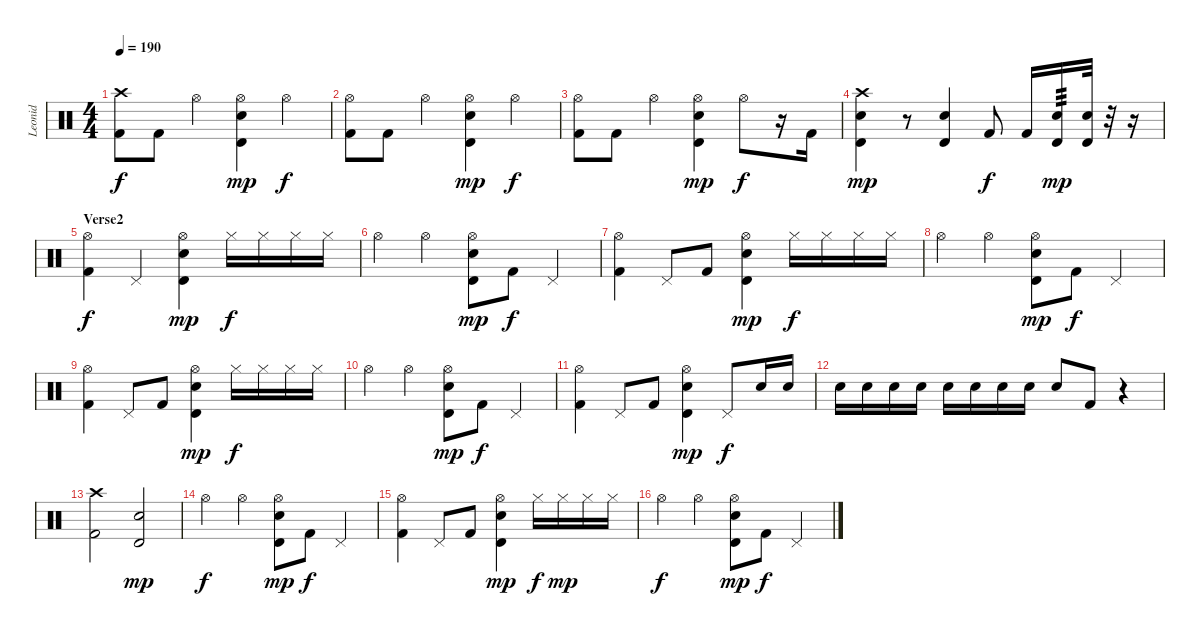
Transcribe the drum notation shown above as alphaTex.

\track ("Leonid" "Leonid") {instrument percussion}
\staff {score}
\articulation defaults
\ts (4 4)
\tempo 190
\clef neutral
\ks c
("Crash high (hit)" "Kick (hit) 2").8{dy f} "Kick (hit) 2".8 "Hi-Hat (open)".4 ("Hi-Hat (open)" "Timbale high (hit)" "Electric Snare (hit)").4{dy mp} "Hi-Hat (open)".4{dy f} |
("Hi-Hat (open)" "Kick (hit) 2").8 "Kick (hit) 2".8 "Hi-Hat (open)".4 ("Hi-Hat (open)" "Timbale high (hit)" "Electric Snare (hit)").4{dy mp} "Hi-Hat (open)".4{dy f} |
("Hi-Hat (open)" "Kick (hit) 2").8 "Kick (hit) 2".8 "Hi-Hat (open)".4 ("Hi-Hat (open)" "Timbale high (hit)" "Electric Snare (hit)").4{dy mp} "Hi-Hat (open)".8{dy f} r.16 "Kick (hit) 2".16 |
("Crash high (hit)" "Timbale high (hit)" "Electric Snare (hit)").4{dy mp} r.8 ("Timbale high (hit)" "Electric Snare (hit)").4 "Kick (hit) 2".8{dy f} "Kick (hit) 2".16 ("Timbale high (hit)" "Electric Snare (hit)").16{tp 3 dy mp} ("Timbale high (hit)" "Electric Snare (hit)").32 r.32 r.16 |
\section ("" "Verse2")
("Hi-Hat (open)" "Kick (hit) 2").4{dy f} "Pedal Hi-Hat (hit)".4 ("Hi-Hat (open)" "Timbale high (hit)" "Electric Snare (hit)").4{dy mp} "Hi-Hat (closed)".16{dy f} "Hi-Hat (closed)".16 "Hi-Hat (closed)".16 "Hi-Hat (closed)".16 |
"Hi-Hat (open)".4 "Hi-Hat (open)".4 ("Hi-Hat (open)" "Timbale high (hit)" "Electric Snare (hit)").8{dy mp} "Kick (hit) 2".8{dy f} "Pedal Hi-Hat (hit)".4 |
("Hi-Hat (open)" "Kick (hit) 2").4 "Pedal Hi-Hat (hit)".8 "Kick (hit) 2".8 ("Hi-Hat (open)" "Timbale high (hit)" "Electric Snare (hit)").4{dy mp} "Hi-Hat (closed)".16{dy f} "Hi-Hat (closed)".16 "Hi-Hat (closed)".16 "Hi-Hat (closed)".16 |
"Hi-Hat (open)".4 "Hi-Hat (open)".4 ("Hi-Hat (open)" "Timbale high (hit)" "Electric Snare (hit)").8{dy mp} "Kick (hit) 2".8{dy f} "Pedal Hi-Hat (hit)".4 |
("Hi-Hat (open)" "Kick (hit) 2").4 "Pedal Hi-Hat (hit)".8 "Kick (hit) 2".8 ("Hi-Hat (open)" "Timbale high (hit)" "Electric Snare (hit)").4{dy mp} "Hi-Hat (closed)".16{dy f} "Hi-Hat (closed)".16 "Hi-Hat (closed)".16 "Hi-Hat (closed)".16 |
"Hi-Hat (open)".4 "Hi-Hat (open)".4 ("Hi-Hat (open)" "Timbale high (hit)" "Electric Snare (hit)").8{dy mp} "Kick (hit) 2".8{dy f} "Pedal Hi-Hat (hit)".4 |
("Hi-Hat (open)" "Kick (hit) 2").4 "Pedal Hi-Hat (hit)".8 "Kick (hit) 2".8 ("Hi-Hat (open)" "Timbale high (hit)" "Electric Snare (hit)").4{dy mp} "Pedal Hi-Hat (hit)".8{dy f} "Electric Snare (hit)".16 "Electric Snare (hit)".16 |
"Electric Snare (hit)".16 "Electric Snare (hit)".16 "Electric Snare (hit)".16 "Electric Snare (hit)".16 "Electric Snare (hit)".16 "Electric Snare (hit)".16 "Electric Snare (hit)".16 "Electric Snare (hit)".16 "Electric Snare (hit)".8 "Kick (hit) 2".8 r.4 |
("Crash high (hit)" "Kick (hit) 2").2 ("Timbale high (hit)" "Electric Snare (hit)").2{dy mp} |
"Hi-Hat (open)".4{dy f} "Hi-Hat (open)".4 ("Hi-Hat (open)" "Timbale high (hit)" "Electric Snare (hit)").8{dy mp} "Kick (hit) 2".8{dy f} "Pedal Hi-Hat (hit)".4 |
("Hi-Hat (open)" "Kick (hit) 2").4 "Pedal Hi-Hat (hit)".8 "Kick (hit) 2".8 ("Hi-Hat (open)" "Timbale high (hit)" "Electric Snare (hit)").4{dy mp} "Hi-Hat (closed)".16{dy f} "Hi-Hat (closed)".16{dy mp} "Hi-Hat (closed)".16 "Hi-Hat (closed)".16 |
"Hi-Hat (open)".4{dy f} "Hi-Hat (open)".4 ("Hi-Hat (open)" "Timbale high (hit)" "Electric Snare (hit)").8{dy mp} "Kick (hit) 2".8{dy f} "Pedal Hi-Hat (hit)".4
